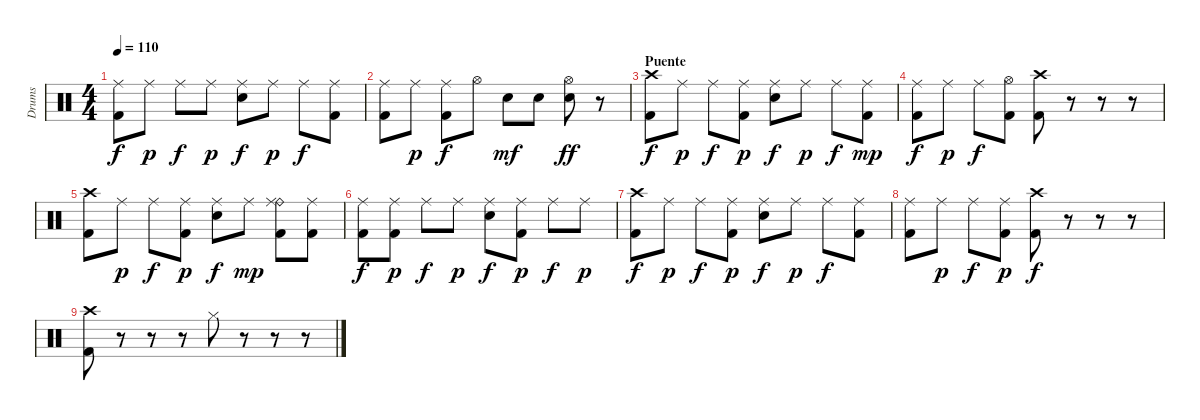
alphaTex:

\track ("Drums" "Drums") {instrument percussion}
\staff {score}
\articulation defaults
\ts (4 4)
\tempo 110
\clef neutral
\ks c
("Ride (middle)" "Kick (hit) 2").8{dy f} "Ride (middle)".8{dy p} "Ride (middle)".8{dy f} "Ride (middle)".8{dy p} ("Ride (middle)" "Snare (hit) 2").8{dy f} "Ride (middle)".8{dy p} "Ride (middle)".8{dy f} ("Ride (middle)" "Kick (hit) 2").8 |
("Ride (middle)" "Kick (hit) 2").8 "Ride (middle)".8{dy p} ("Ride (middle)" "Kick (hit) 2").8{dy f} "Hi-Hat (open)".8 "Snare (hit) 2".8{dy mf} "Snare (hit) 2".8 ("Hi-Hat (open)" "Snare (hit) 2").8{dy ff} r.8 |
\section ("" "Puente")
("Crash high (hit)" "Kick (hit) 2").8{dy f volume 5} "Ride (middle)".8{dy p} "Ride (middle)".8{dy f} ("Ride (middle)" "Kick (hit) 2").8{dy p} ("Ride (middle)" "Snare (hit) 2").8{dy f} "Ride (middle)".8{dy p} "Ride (middle)".8{dy f} ("Ride (middle)" "Kick (hit) 2").8{dy mp} |
("Ride (middle)" "Kick (hit) 2").8{dy f} "Ride (middle)".8{dy p} "Ride (middle)".8{dy f} ("Hi-Hat (open)" "Kick (hit) 2").8 ("Crash high (hit)" "Kick (hit) 2").8 r.8 r.8 r.8 |
("Crash high (hit)" "Kick (hit) 2").8 "Ride (middle)".8{dy p} "Ride (middle)".8{dy f} ("Ride (middle)" "Kick (hit) 2").8{dy p} ("Ride (middle)" "Snare (hit) 2").8{dy f} "Ride (middle)".8{dy mp} ("Ride (bell)" "Ride (middle)" "Kick (hit) 2").8 ("Ride (middle)" "Kick (hit) 2").8 |
("Ride (middle)" "Kick (hit) 2").8{dy f} ("Ride (middle)" "Kick (hit) 2").8{dy p} "Ride (middle)".8{dy f} "Ride (middle)".8{dy p} ("Ride (middle)" "Snare (hit) 2").8{dy f} ("Ride (middle)" "Kick (hit) 2").8{dy p} "Ride (middle)".8{dy f} "Ride (middle)".8{dy p} |
("Crash high (hit)" "Kick (hit) 2").8{dy f volume 0} "Ride (middle)".8{dy p} "Ride (middle)".8{dy f} ("Ride (middle)" "Kick (hit) 2").8{dy p} ("Ride (middle)" "Snare (hit) 2").8{dy f} "Ride (middle)".8{dy p} "Ride (middle)".8{dy f} ("Ride (middle)" "Kick (hit) 2").8 |
("Ride (middle)" "Kick (hit) 2").8 "Ride (middle)".8{dy p} "Ride (middle)".8{dy f} ("Ride (middle)" "Kick (hit) 2").8{dy p} ("Crash high (hit)" "Kick (hit) 2").8{dy f} r.8 r.8 r.8 |
("Crash high (hit)" "Kick (hit) 2").8 r.8 r.8 r.8 "Hi-Hat (closed)".8 r.8 r.8 r.8
